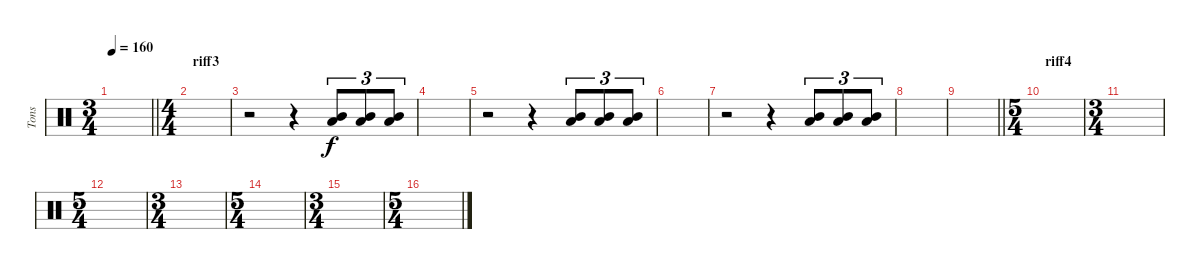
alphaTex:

\track ("Tons" "Tons") {instrument percussion}
\staff {score}
\articulation defaults
\ts (3 4)
\tempo 160
\clef neutral
\barLineRight lightlight
\ks c
|
\ts (4 4)
\section ("" "riff3")
|
r.2 r.4 ("Mid Tom (hit)" "Low Tom (hit)").8{tu (3 2)} ("Mid Tom (hit)" "Low Tom (hit)").8{tu (3 2)} ("Mid Tom (hit)" "Low Tom (hit)").8{tu (3 2)} |
|
r.2 r.4 ("Mid Tom (hit)" "Low Tom (hit)").8{tu (3 2)} ("Mid Tom (hit)" "Low Tom (hit)").8{tu (3 2)} ("Mid Tom (hit)" "Low Tom (hit)").8{tu (3 2)} |
|
r.2 r.4 ("Mid Tom (hit)" "Low Tom (hit)").8{tu (3 2)} ("Mid Tom (hit)" "Low Tom (hit)").8{tu (3 2)} ("Mid Tom (hit)" "Low Tom (hit)").8{tu (3 2)} |
|
\barLineRight lightlight
|
\ts (5 4)
\section ("" "riff4")
|
\ts (3 4)
|
\ts (5 4)
|
\ts (3 4)
|
\ts (5 4)
|
\ts (3 4)
|
\ts (5 4)
